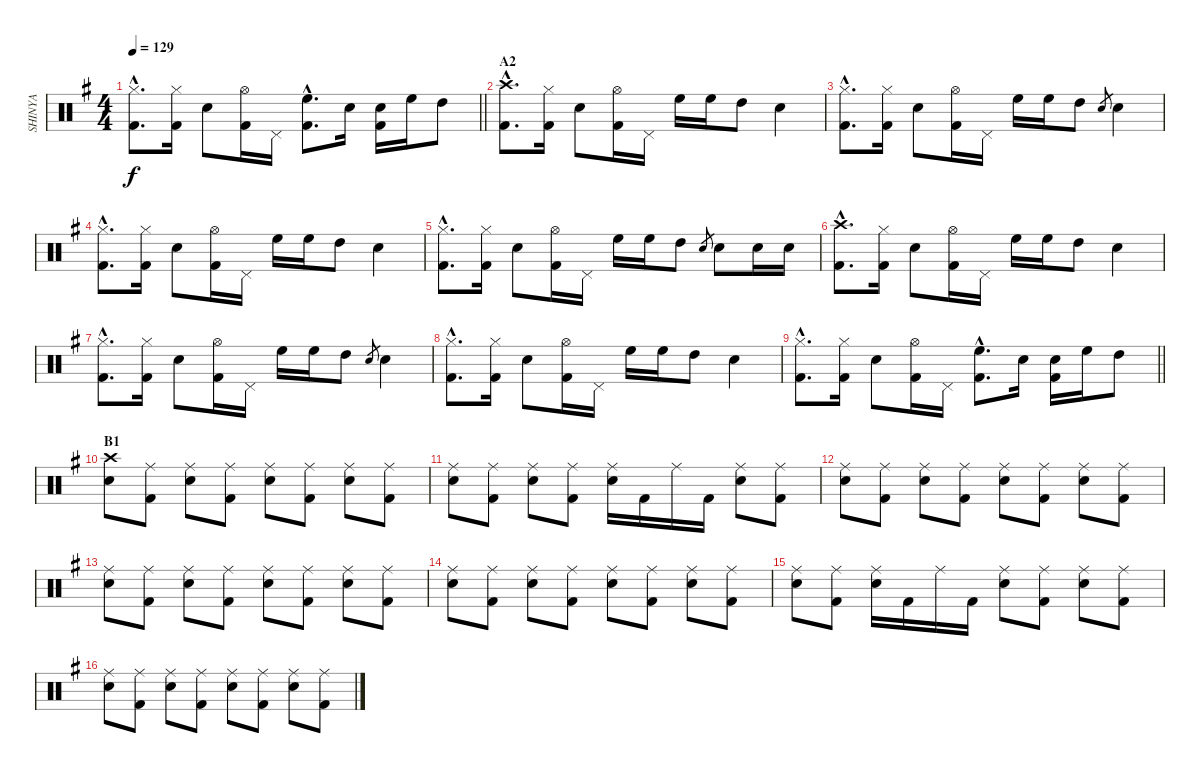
\track ("SHINYA" "SHINYA") {instrument percussion}
\staff {score}
\articulation defaults
\ts (4 4)
\tempo 129
\clef neutral
\barLineRight lightlight
\ks g
("Hi-Hat (closed)"{hac} "Kick (hit) 2"{hac}).8{d dy f} ("Hi-Hat (closed)" "Kick (hit) 2").16 "Snare (hit) 2".8 ("Hi-Hat (open)" "Kick (hit) 2").16 "Pedal Hi-Hat (hit)".16 ("High Floor Tom (hit)"{hac} "Kick (hit) 2"{hac}).8{d} "Snare (hit) 2".16 ("Snare (hit) 2" "Kick (hit) 2").16 "High Floor Tom (hit)".16 "High Tom (hit)".8 |
\section ("" "A2")
("Crash high (hit)"{hac} "Kick (hit) 2"{hac}).8{d} ("Hi-Hat (closed)" "Kick (hit) 2").16 "Snare (hit) 2".8 ("Hi-Hat (open)" "Kick (hit) 2").16 "Pedal Hi-Hat (hit)".16 "High Floor Tom (hit)".16 "High Floor Tom (hit)".16 "High Tom (hit)".8 "Snare (hit) 2".4 |
("Hi-Hat (closed)"{hac} "Kick (hit) 2"{hac}).8{d} ("Hi-Hat (closed)" "Kick (hit) 2").16 "Snare (hit) 2".8 ("Hi-Hat (open)" "Kick (hit) 2").16 "Pedal Hi-Hat (hit)".16 "High Floor Tom (hit)".16 "High Floor Tom (hit)".16 "High Tom (hit)".8 "Snare (hit) 2".8{gr} "Snare (hit) 2".4 |
("Hi-Hat (closed)"{hac} "Kick (hit) 2"{hac}).8{d} ("Hi-Hat (closed)" "Kick (hit) 2").16 "Snare (hit) 2".8 ("Hi-Hat (open)" "Kick (hit) 2").16 "Pedal Hi-Hat (hit)".16 "High Floor Tom (hit)".16 "High Floor Tom (hit)".16 "High Tom (hit)".8 "Snare (hit) 2".4 |
("Hi-Hat (closed)"{hac} "Kick (hit) 2"{hac}).8{d} ("Hi-Hat (closed)" "Kick (hit) 2").16 "Snare (hit) 2".8 ("Hi-Hat (open)" "Kick (hit) 2").16 "Pedal Hi-Hat (hit)".16 "High Floor Tom (hit)".16 "High Floor Tom (hit)".16 "High Tom (hit)".8 "Snare (hit) 2".8{gr} "Snare (hit) 2".8 "Snare (hit) 2".16 "Snare (hit) 2".16 |
("Crash high (hit)"{hac} "Kick (hit) 2"{hac}).8{d} ("Hi-Hat (closed)" "Kick (hit) 2").16 "Snare (hit) 2".8 ("Hi-Hat (open)" "Kick (hit) 2").16 "Pedal Hi-Hat (hit)".16 "High Floor Tom (hit)".16 "High Floor Tom (hit)".16 "High Tom (hit)".8 "Snare (hit) 2".4 |
("Hi-Hat (closed)"{hac} "Kick (hit) 2"{hac}).8{d} ("Hi-Hat (closed)" "Kick (hit) 2").16 "Snare (hit) 2".8 ("Hi-Hat (open)" "Kick (hit) 2").16 "Pedal Hi-Hat (hit)".16 "High Floor Tom (hit)".16 "High Floor Tom (hit)".16 "High Tom (hit)".8 "Snare (hit) 2".8{gr} "Snare (hit) 2".4 |
("Hi-Hat (closed)"{hac} "Kick (hit) 2"{hac}).8{d} ("Hi-Hat (closed)" "Kick (hit) 2").16 "Snare (hit) 2".8 ("Hi-Hat (open)" "Kick (hit) 2").16 "Pedal Hi-Hat (hit)".16 "High Floor Tom (hit)".16 "High Floor Tom (hit)".16 "High Tom (hit)".8 "Snare (hit) 2".4 |
\barLineRight lightlight
("Hi-Hat (closed)"{hac} "Kick (hit) 2"{hac}).8{d} ("Hi-Hat (closed)" "Kick (hit) 2").16 "Snare (hit) 2".8 ("Hi-Hat (open)" "Kick (hit) 2").16 "Pedal Hi-Hat (hit)".16 ("High Floor Tom (hit)"{hac} "Kick (hit) 2"{hac}).8{d} "Snare (hit) 2".16 ("Snare (hit) 2" "Kick (hit) 2").16 "High Floor Tom (hit)".16 "High Tom (hit)".8 |
\section ("" "B1")
("Crash high (hit)" "Snare (hit) 2").8 ("Ride (middle)" "Kick (hit) 2").8 ("Ride (middle)" "Snare (hit) 2").8 ("Ride (middle)" "Kick (hit) 2").8 ("Ride (middle)" "Snare (hit) 2").8 ("Ride (middle)" "Kick (hit) 2").8 ("Ride (middle)" "Snare (hit) 2").8 ("Ride (middle)" "Kick (hit) 2").8 |
("Ride (middle)" "Snare (hit) 2").8 ("Ride (middle)" "Kick (hit) 2").8 ("Ride (middle)" "Snare (hit) 2").8 ("Ride (middle)" "Kick (hit) 2").8 ("Ride (middle)" "Snare (hit) 2").16 "Kick (hit) 2".16 "Ride (middle)".16 "Kick (hit) 2".16 ("Ride (middle)" "Snare (hit) 2").8 ("Ride (middle)" "Kick (hit) 2").8 |
("Ride (middle)" "Snare (hit) 2").8 ("Ride (middle)" "Kick (hit) 2").8 ("Ride (middle)" "Snare (hit) 2").8 ("Ride (middle)" "Kick (hit) 2").8 ("Ride (middle)" "Snare (hit) 2").8 ("Ride (middle)" "Kick (hit) 2").8 ("Ride (middle)" "Snare (hit) 2").8 ("Ride (middle)" "Kick (hit) 2").8 |
("Ride (middle)" "Snare (hit) 2").8 ("Ride (middle)" "Kick (hit) 2").8 ("Ride (middle)" "Snare (hit) 2").8 ("Ride (middle)" "Kick (hit) 2").8 ("Ride (middle)" "Snare (hit) 2").8 ("Ride (middle)" "Kick (hit) 2").8 ("Ride (middle)" "Snare (hit) 2").8 ("Ride (middle)" "Kick (hit) 2").8 |
("Ride (middle)" "Snare (hit) 2").8 ("Ride (middle)" "Kick (hit) 2").8 ("Ride (middle)" "Snare (hit) 2").8 ("Ride (middle)" "Kick (hit) 2").8 ("Ride (middle)" "Snare (hit) 2").8 ("Ride (middle)" "Kick (hit) 2").8 ("Ride (middle)" "Snare (hit) 2").8 ("Ride (middle)" "Kick (hit) 2").8 |
("Ride (middle)" "Snare (hit) 2").8 ("Ride (middle)" "Kick (hit) 2").8 ("Ride (middle)" "Snare (hit) 2").16 "Kick (hit) 2".16 "Ride (middle)".16 "Kick (hit) 2".16 ("Ride (middle)" "Snare (hit) 2").8 ("Ride (middle)" "Kick (hit) 2").8 ("Ride (middle)" "Snare (hit) 2").8 ("Ride (middle)" "Kick (hit) 2").8 |
("Ride (middle)" "Snare (hit) 2").8 ("Ride (middle)" "Kick (hit) 2").8 ("Ride (middle)" "Snare (hit) 2").8 ("Ride (middle)" "Kick (hit) 2").8 ("Ride (middle)" "Snare (hit) 2").8 ("Ride (middle)" "Kick (hit) 2").8 ("Ride (middle)" "Snare (hit) 2").8 ("Ride (middle)" "Kick (hit) 2").8
